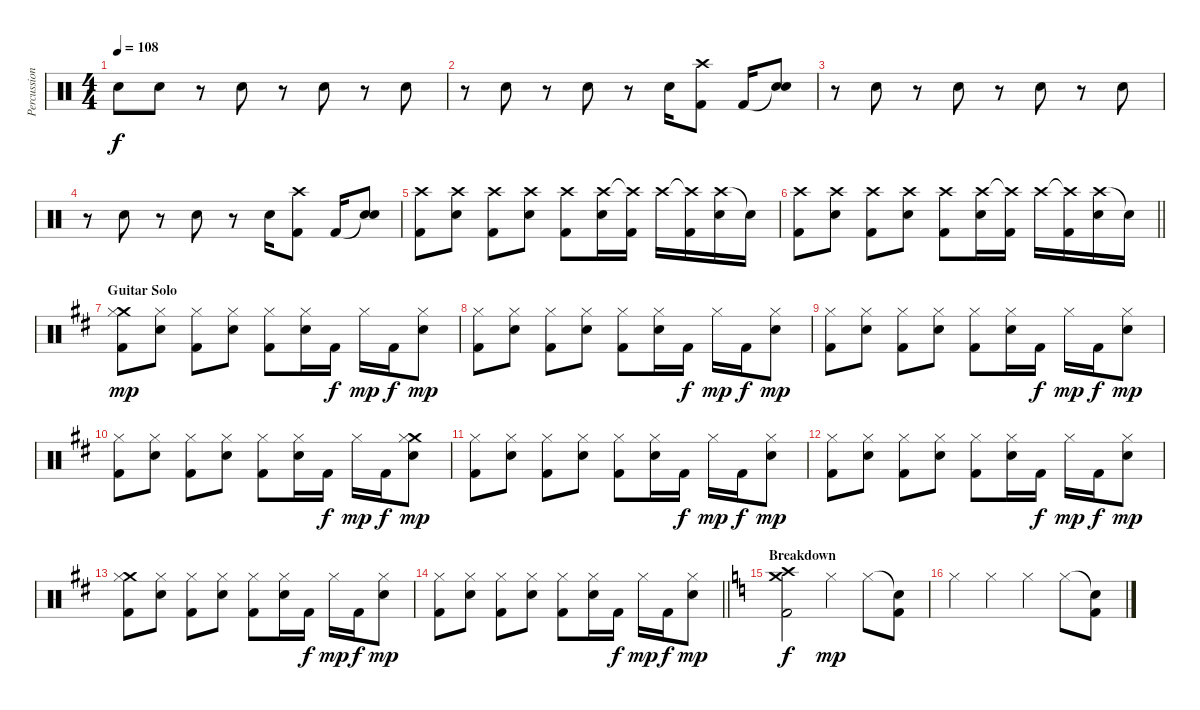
\track ("Percussion" "Percussion") {instrument percussion}
\staff {score}
\articulation defaults
\ts (4 4)
\tempo 108
\clef neutral
\ks c "Snare (hit)"{t}.8{dy f} "Snare (hit) 2".8
r.8 "Snare (hit) 2".8 r.8 "Snare (hit) 2".8 r.8 "Snare (hit) 2".8 |
r.8 "Snare (hit) 2".8 r.8 "Snare (hit) 2".8 r.8 "Snare (hit) 2".16 ("Crash high (hit)" "Kick (hit) 2").8 "Kick (hit) 2".16 ("Snare (hit)"{t} "Snare (hit) 2").8 |
r.8 "Snare (hit) 2".8 r.8 "Snare (hit) 2".8 r.8 "Snare (hit) 2".8 r.8 "Snare (hit) 2".8 |
r.8 "Snare (hit) 2".8 r.8 "Snare (hit) 2".8 r.8 "Snare (hit) 2".16 ("Crash high (hit)" "Kick (hit) 2").8 "Kick (hit) 2".16 ("Snare (hit)"{t} "Snare (hit) 2").8 |
("Crash high (hit)" "Kick (hit) 2").8 ("Crash high (hit)" "Snare (hit) 2").8 ("Crash high (hit)" "Kick (hit) 2").8 ("Crash high (hit)" "Snare (hit) 2").8 ("Crash high (hit)" "Kick (hit) 2").8 ("Crash high (hit)" "Snare (hit) 2").16 ("Crash high (hit)"{t} "Kick (hit) 2").16 "Crash high (hit)".16 ("Crash high (hit)"{t} "Kick (hit) 2").16 ("Crash high (hit)" "Snare (hit) 2").16 "Snare (hit)"{t}.16 |
\barLineRight lightlight
("Crash high (hit)" "Kick (hit) 2").8 ("Crash high (hit)" "Snare (hit) 2").8 ("Crash high (hit)" "Kick (hit) 2").8 ("Crash high (hit)" "Snare (hit) 2").8 ("Crash high (hit)" "Kick (hit) 2").8 ("Crash high (hit)" "Snare (hit) 2").16 ("Crash high (hit)"{t} "Kick (hit) 2").16 "Crash high (hit)".16 ("Crash high (hit)"{t} "Kick (hit) 2").16 ("Crash high (hit)" "Snare (hit) 2").16 "Snare (hit)"{t}.16 |
\section ("" "Guitar Solo")
\ks bminor
("Crash medium (hit)" "Hi-Hat (closed)" "Kick (hit) 2").8{dy mp} ("Hi-Hat (closed)" "Snare (hit) 2").8 ("Hi-Hat (closed)" "Kick (hit) 2").8 ("Hi-Hat (closed)" "Snare (hit) 2").8 ("Hi-Hat (closed)" "Kick (hit) 2").8 ("Hi-Hat (closed)" "Snare (hit) 2").16 "Kick (hit) 2".16{dy f} "Hi-Hat (closed)".16{dy mp} "Kick (hit) 2".16{dy f} ("Hi-Hat (closed)" "Snare (hit) 2").8{dy mp} |
("Hi-Hat (closed)" "Kick (hit) 2").8 ("Hi-Hat (closed)" "Snare (hit) 2").8 ("Hi-Hat (closed)" "Kick (hit) 2").8 ("Hi-Hat (closed)" "Snare (hit) 2").8 ("Hi-Hat (closed)" "Kick (hit) 2").8 ("Hi-Hat (closed)" "Snare (hit) 2").16 "Kick (hit) 2".16{dy f} "Hi-Hat (closed)".16{dy mp} "Kick (hit) 2".16{dy f} ("Hi-Hat (closed)" "Snare (hit) 2").8{dy mp} |
("Hi-Hat (closed)" "Kick (hit) 2").8 ("Hi-Hat (closed)" "Snare (hit) 2").8 ("Hi-Hat (closed)" "Kick (hit) 2").8 ("Hi-Hat (closed)" "Snare (hit) 2").8 ("Hi-Hat (closed)" "Kick (hit) 2").8 ("Hi-Hat (closed)" "Snare (hit) 2").16 "Kick (hit) 2".16{dy f} "Hi-Hat (closed)".16{dy mp} "Kick (hit) 2".16{dy f} ("Hi-Hat (closed)" "Snare (hit) 2").8{dy mp} |
("Hi-Hat (closed)" "Kick (hit) 2").8 ("Hi-Hat (closed)" "Snare (hit) 2").8 ("Hi-Hat (closed)" "Kick (hit) 2").8 ("Hi-Hat (closed)" "Snare (hit) 2").8 ("Hi-Hat (closed)" "Kick (hit) 2").8 ("Hi-Hat (closed)" "Snare (hit) 2").16 "Kick (hit) 2".16{dy f} "Hi-Hat (closed)".16{dy mp} "Kick (hit) 2".16{dy f} ("Crash medium (hit)" "Hi-Hat (closed)" "Snare (hit) 2").8{dy mp} |
("Hi-Hat (closed)" "Kick (hit) 2").8 ("Hi-Hat (closed)" "Snare (hit) 2").8 ("Hi-Hat (closed)" "Kick (hit) 2").8 ("Hi-Hat (closed)" "Snare (hit) 2").8 ("Hi-Hat (closed)" "Kick (hit) 2").8 ("Hi-Hat (closed)" "Snare (hit) 2").16 "Kick (hit) 2".16{dy f} "Hi-Hat (closed)".16{dy mp} "Kick (hit) 2".16{dy f} ("Hi-Hat (closed)" "Snare (hit) 2").8{dy mp} |
("Hi-Hat (closed)" "Kick (hit) 2").8 ("Hi-Hat (closed)" "Snare (hit) 2").8 ("Hi-Hat (closed)" "Kick (hit) 2").8 ("Hi-Hat (closed)" "Snare (hit) 2").8 ("Hi-Hat (closed)" "Kick (hit) 2").8 ("Hi-Hat (closed)" "Snare (hit) 2").16 "Kick (hit) 2".16{dy f} "Hi-Hat (closed)".16{dy mp} "Kick (hit) 2".16{dy f} ("Hi-Hat (closed)" "Snare (hit) 2").8{dy mp} |
("Crash medium (hit)" "Hi-Hat (closed)" "Kick (hit) 2").8 ("Hi-Hat (closed)" "Snare (hit) 2").8 ("Hi-Hat (closed)" "Kick (hit) 2").8 ("Hi-Hat (closed)" "Snare (hit) 2").8 ("Hi-Hat (closed)" "Kick (hit) 2").8 ("Hi-Hat (closed)" "Snare (hit) 2").16 "Kick (hit) 2".16{dy f} "Hi-Hat (closed)".16{dy mp} "Kick (hit) 2".16{dy f} ("Hi-Hat (closed)" "Snare (hit) 2").8{dy mp} |
\barLineRight lightlight
("Hi-Hat (closed)" "Kick (hit) 2").8 ("Hi-Hat (closed)" "Snare (hit) 2").8 ("Hi-Hat (closed)" "Kick (hit) 2").8 ("Hi-Hat (closed)" "Snare (hit) 2").8 ("Hi-Hat (closed)" "Kick (hit) 2").8 ("Hi-Hat (closed)" "Snare (hit) 2").16 "Kick (hit) 2".16{dy f} "Hi-Hat (closed)".16{dy mp} "Kick (hit) 2".16{dy f} ("Hi-Hat (closed)" "Snare (hit) 2").8{dy mp} |
\section ("" "Breakdown")
\ks c
("Crash high (hit)" "Crash medium (hit)" "Kick (hit) 2").2{dy f} "Hi-Hat (closed)".4{dy mp} "Hi-Hat (closed)".8 ("Snare (hit)"{t} "Kick (hit) 2").8 |
"Hi-Hat (closed)".4 "Hi-Hat (closed)".4 "Hi-Hat (closed)".4 "Hi-Hat (closed)".8 ("Snare (hit)"{t} "Kick (hit) 2").8
